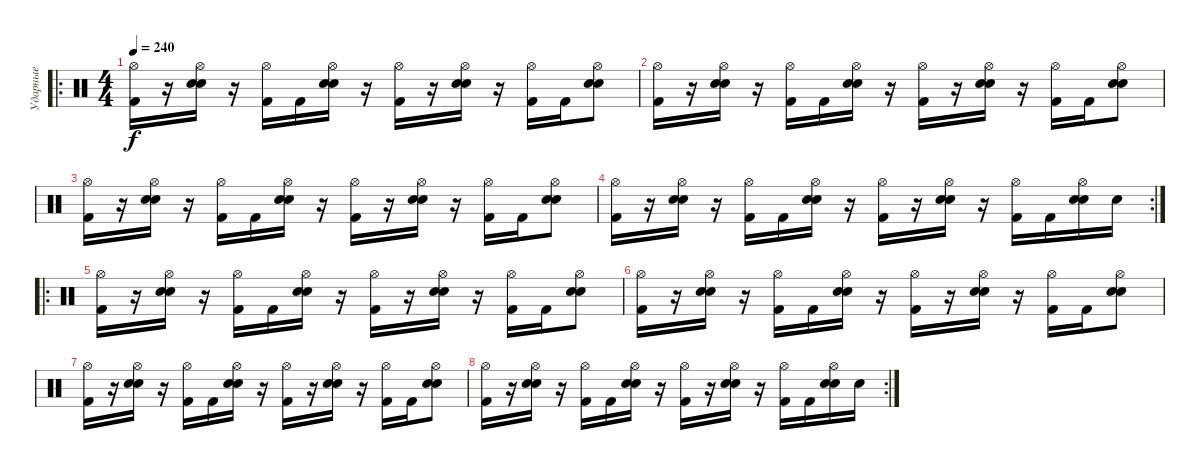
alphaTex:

\track ("Ударные" "Ударные") {instrument percussion}
\staff {score}
\articulation defaults
\ro
\ts (4 4)
\tempo 240
\clef neutral
\ks c
("Hi-Hat (open)" "Kick (hit) 2").16{dy f} r.16 ("Hi-Hat (open)" "Electric Snare (hit)" "Snare (hit) 2").16 r.16 ("Hi-Hat (open)" "Kick (hit) 2").16 "Kick (hit) 2".16 ("Hi-Hat (open)" "Electric Snare (hit)" "Snare (hit) 2").16 r.16 ("Hi-Hat (open)" "Kick (hit) 2").16 r.16 ("Hi-Hat (open)" "Electric Snare (hit)" "Snare (hit) 2").16 r.16 ("Hi-Hat (open)" "Kick (hit) 2").16 "Kick (hit) 2".16 ("Hi-Hat (open)" "Electric Snare (hit)" "Snare (hit) 2").8 |
("Hi-Hat (open)" "Kick (hit) 2").16 r.16 ("Hi-Hat (open)" "Electric Snare (hit)" "Snare (hit) 2").16 r.16 ("Hi-Hat (open)" "Kick (hit) 2").16 "Kick (hit) 2".16 ("Hi-Hat (open)" "Electric Snare (hit)" "Snare (hit) 2").16 r.16 ("Hi-Hat (open)" "Kick (hit) 2").16 r.16 ("Hi-Hat (open)" "Electric Snare (hit)" "Snare (hit) 2").16 r.16 ("Hi-Hat (open)" "Kick (hit) 2").16 "Kick (hit) 2".16 ("Hi-Hat (open)" "Electric Snare (hit)" "Snare (hit) 2").8 |
("Hi-Hat (open)" "Kick (hit) 2").16 r.16 ("Hi-Hat (open)" "Electric Snare (hit)" "Snare (hit) 2").16 r.16 ("Hi-Hat (open)" "Kick (hit) 2").16 "Kick (hit) 2".16 ("Hi-Hat (open)" "Electric Snare (hit)" "Snare (hit) 2").16 r.16 ("Hi-Hat (open)" "Kick (hit) 2").16 r.16 ("Hi-Hat (open)" "Electric Snare (hit)" "Snare (hit) 2").16 r.16 ("Hi-Hat (open)" "Kick (hit) 2").16 "Kick (hit) 2".16 ("Hi-Hat (open)" "Electric Snare (hit)" "Snare (hit) 2").8 |
\rc 2
("Hi-Hat (open)" "Kick (hit) 2").16 r.16 ("Hi-Hat (open)" "Electric Snare (hit)" "Snare (hit) 2").16 r.16 ("Hi-Hat (open)" "Kick (hit) 2").16 "Kick (hit) 2".16 ("Hi-Hat (open)" "Electric Snare (hit)" "Snare (hit) 2").16 r.16 ("Hi-Hat (open)" "Kick (hit) 2").16 r.16 ("Hi-Hat (open)" "Electric Snare (hit)" "Snare (hit) 2").16 r.16 ("Hi-Hat (open)" "Kick (hit) 2").16 "Kick (hit) 2".16 ("Hi-Hat (open)" "Electric Snare (hit)" "Snare (hit) 2").16 "Electric Snare (hit)".16 |
\ro
("Hi-Hat (open)" "Kick (hit) 2").16 r.16 ("Hi-Hat (open)" "Electric Snare (hit)" "Snare (hit) 2").16 r.16 ("Hi-Hat (open)" "Kick (hit) 2").16 "Kick (hit) 2".16 ("Hi-Hat (open)" "Electric Snare (hit)" "Snare (hit) 2").16 r.16 ("Hi-Hat (open)" "Kick (hit) 2").16 r.16 ("Hi-Hat (open)" "Electric Snare (hit)" "Snare (hit) 2").16 r.16 ("Hi-Hat (open)" "Kick (hit) 2").16 "Kick (hit) 2".16 ("Hi-Hat (open)" "Electric Snare (hit)" "Snare (hit) 2").8 |
("Hi-Hat (open)" "Kick (hit) 2").16 r.16 ("Hi-Hat (open)" "Electric Snare (hit)" "Snare (hit) 2").16 r.16 ("Hi-Hat (open)" "Kick (hit) 2").16 "Kick (hit) 2".16 ("Hi-Hat (open)" "Electric Snare (hit)" "Snare (hit) 2").16 r.16 ("Hi-Hat (open)" "Kick (hit) 2").16 r.16 ("Hi-Hat (open)" "Electric Snare (hit)" "Snare (hit) 2").16 r.16 ("Hi-Hat (open)" "Kick (hit) 2").16 "Kick (hit) 2".16 ("Hi-Hat (open)" "Electric Snare (hit)" "Snare (hit) 2").8 |
("Hi-Hat (open)" "Kick (hit) 2").16 r.16 ("Hi-Hat (open)" "Electric Snare (hit)" "Snare (hit) 2").16 r.16 ("Hi-Hat (open)" "Kick (hit) 2").16 "Kick (hit) 2".16 ("Hi-Hat (open)" "Electric Snare (hit)" "Snare (hit) 2").16 r.16 ("Hi-Hat (open)" "Kick (hit) 2").16 r.16 ("Hi-Hat (open)" "Electric Snare (hit)" "Snare (hit) 2").16 r.16 ("Hi-Hat (open)" "Kick (hit) 2").16 "Kick (hit) 2".16 ("Hi-Hat (open)" "Electric Snare (hit)" "Snare (hit) 2").8 |
\rc 2
("Hi-Hat (open)" "Kick (hit) 2").16 r.16 ("Hi-Hat (open)" "Electric Snare (hit)" "Snare (hit) 2").16 r.16 ("Hi-Hat (open)" "Kick (hit) 2").16 "Kick (hit) 2".16 ("Hi-Hat (open)" "Electric Snare (hit)" "Snare (hit) 2").16 r.16 ("Hi-Hat (open)" "Kick (hit) 2").16 r.16 ("Hi-Hat (open)" "Electric Snare (hit)" "Snare (hit) 2").16 r.16 ("Hi-Hat (open)" "Kick (hit) 2").16 "Kick (hit) 2".16 ("Hi-Hat (open)" "Electric Snare (hit)" "Snare (hit) 2").16 "Electric Snare (hit)".16
